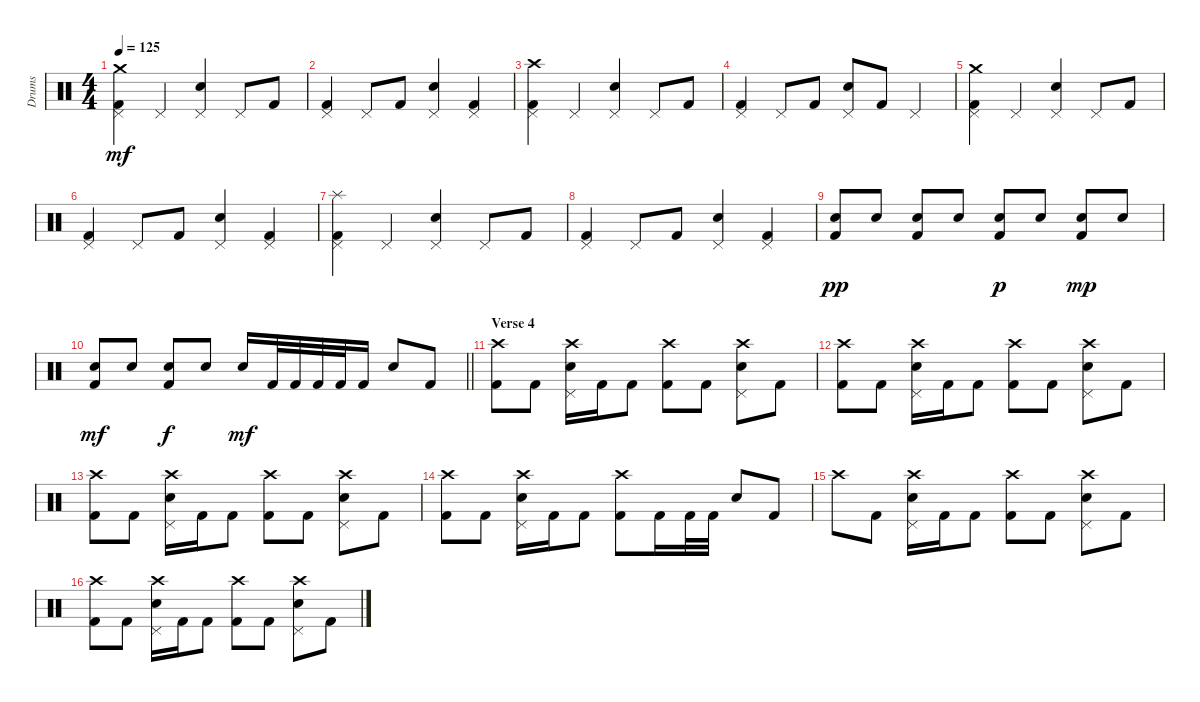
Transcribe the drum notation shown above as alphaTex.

\track ("Drums" "Drums") {instrument percussion}
\staff {score}
\articulation defaults
\ts (4 4)
\tempo 125
\clef neutral
\ks c
("Crash medium (hit)" "Pedal Hi-Hat (hit)" "Kick (hit) 2").4{dy mf} "Pedal Hi-Hat (hit)".4 ("Pedal Hi-Hat (hit)" "Snare (hit) 2").4 "Pedal Hi-Hat (hit)".8 "Kick (hit) 2".8 |
("Pedal Hi-Hat (hit)" "Kick (hit) 2").4 "Pedal Hi-Hat (hit)".8 "Kick (hit) 2".8 ("Pedal Hi-Hat (hit)" "Snare (hit) 2").4 ("Pedal Hi-Hat (hit)" "Kick (hit) 2").4 |
("Crash high (hit)" "Pedal Hi-Hat (hit)" "Kick (hit) 2").4 "Pedal Hi-Hat (hit)".4 ("Pedal Hi-Hat (hit)" "Snare (hit) 2").4 "Pedal Hi-Hat (hit)".8 "Kick (hit) 2".8 |
("Pedal Hi-Hat (hit)" "Kick (hit) 2").4 "Pedal Hi-Hat (hit)".8 "Kick (hit) 2".8 ("Pedal Hi-Hat (hit)" "Snare (hit) 2").8 "Kick (hit) 2".8 "Pedal Hi-Hat (hit)".4 |
("Crash medium (hit)" "Pedal Hi-Hat (hit)" "Kick (hit) 2").4 "Pedal Hi-Hat (hit)".4 ("Pedal Hi-Hat (hit)" "Snare (hit) 2").4 "Pedal Hi-Hat (hit)".8 "Kick (hit) 2".8 |
("Pedal Hi-Hat (hit)" "Kick (hit) 2").4 "Pedal Hi-Hat (hit)".8 "Kick (hit) 2".8 ("Pedal Hi-Hat (hit)" "Snare (hit) 2").4 ("Pedal Hi-Hat (hit)" "Kick (hit) 2").4 |
("Splash (hit)" "Pedal Hi-Hat (hit)" "Kick (hit) 2").4 "Pedal Hi-Hat (hit)".4 ("Pedal Hi-Hat (hit)" "Snare (hit) 2").4 "Pedal Hi-Hat (hit)".8 "Kick (hit) 2".8 |
("Pedal Hi-Hat (hit)" "Kick (hit) 2").4 "Pedal Hi-Hat (hit)".8 "Kick (hit) 2".8 ("Pedal Hi-Hat (hit)" "Snare (hit) 2").4 ("Pedal Hi-Hat (hit)" "Kick (hit) 2").4 |
("Snare (hit) 2" "Kick (hit) 2").8{dy pp} "Snare (hit) 2".8 ("Snare (hit) 2" "Kick (hit) 2").8 "Snare (hit) 2".8 ("Snare (hit) 2" "Kick (hit) 2").8{dy p} "Snare (hit) 2".8 ("Snare (hit) 2" "Kick (hit) 2").8{dy mp} "Snare (hit) 2".8 |
\barLineRight lightlight
("Snare (hit) 2" "Kick (hit) 2").8{dy mf} "Snare (hit) 2".8 ("Snare (hit) 2" "Kick (hit) 2").8{dy f} "Snare (hit) 2".8 "Snare (hit) 2".16{dy mf} "Kick (hit) 2".32 "Kick (hit) 2".32 "Kick (hit) 2".32 "Kick (hit) 2".32 "Kick (hit) 2".16 "Snare (hit) 2".8 "Kick (hit) 2".8 |
\section ("" "Verse 4")
("Crash high (hit)" "Kick (hit) 2").8 "Kick (hit) 2".8 ("Pedal Hi-Hat (hit)" "Crash high (hit)" "Snare (hit) 2").16 "Kick (hit) 2".16 "Kick (hit) 2".8 ("Crash high (hit)" "Kick (hit) 2").8 "Kick (hit) 2".8 ("Pedal Hi-Hat (hit)" "Crash high (hit)" "Snare (hit) 2").8 "Kick (hit) 2".8 |
("Crash high (hit)" "Kick (hit) 2").8 "Kick (hit) 2".8 ("Pedal Hi-Hat (hit)" "Crash high (hit)" "Snare (hit) 2").16 "Kick (hit) 2".16 "Kick (hit) 2".8 ("Crash high (hit)" "Kick (hit) 2").8 "Kick (hit) 2".8 ("Pedal Hi-Hat (hit)" "Crash high (hit)" "Snare (hit) 2").8 "Kick (hit) 2".8 |
("Crash high (hit)" "Kick (hit) 2").8 "Kick (hit) 2".8 ("Pedal Hi-Hat (hit)" "Crash high (hit)" "Snare (hit) 2").16 "Kick (hit) 2".16 "Kick (hit) 2".8 ("Crash high (hit)" "Kick (hit) 2").8 "Kick (hit) 2".8 ("Pedal Hi-Hat (hit)" "Crash high (hit)" "Snare (hit) 2").8 "Kick (hit) 2".8 |
("Crash high (hit)" "Kick (hit) 2").8 "Kick (hit) 2".8 ("Pedal Hi-Hat (hit)" "Crash high (hit)" "Snare (hit) 2").16 "Kick (hit) 2".16 "Kick (hit) 2".8 ("Crash high (hit)" "Kick (hit) 2").8 "Kick (hit) 2".16 "Kick (hit) 2".32 "Kick (hit) 2".32 "Snare (hit) 2".8 "Kick (hit) 2".8 |
"Crash high (hit)".8 "Kick (hit) 2".8 ("Pedal Hi-Hat (hit)" "Crash high (hit)" "Snare (hit) 2").16 "Kick (hit) 2".16 "Kick (hit) 2".8 ("Crash high (hit)" "Kick (hit) 2").8 "Kick (hit) 2".8 ("Pedal Hi-Hat (hit)" "Crash high (hit)" "Snare (hit) 2").8 "Kick (hit) 2".8 |
("Crash high (hit)" "Kick (hit) 2").8 "Kick (hit) 2".8 ("Pedal Hi-Hat (hit)" "Crash high (hit)" "Snare (hit) 2").16 "Kick (hit) 2".16 "Kick (hit) 2".8 ("Crash high (hit)" "Kick (hit) 2").8 "Kick (hit) 2".8 ("Pedal Hi-Hat (hit)" "Crash high (hit)" "Snare (hit) 2").8 "Kick (hit) 2".8
